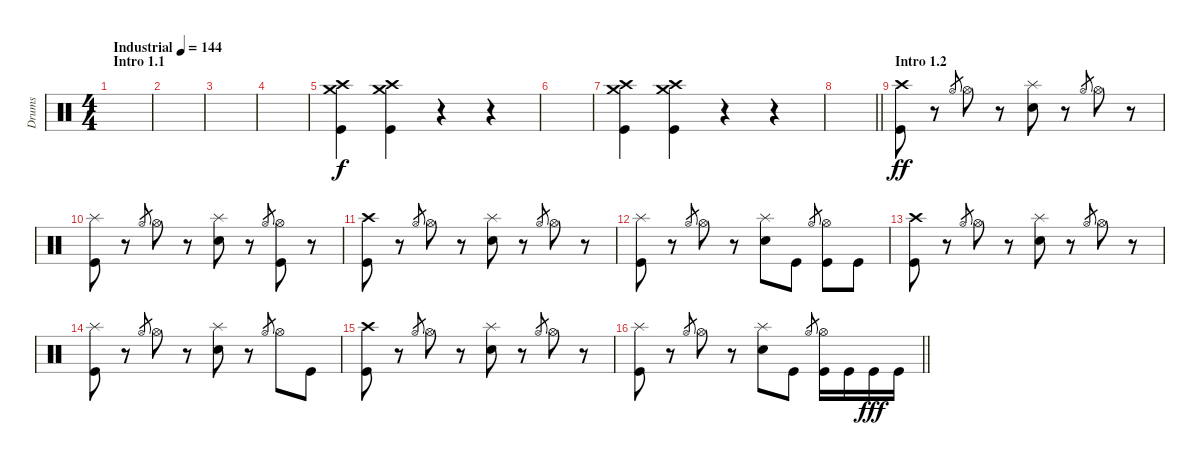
\track ("Drums" "Drums") {instrument percussion}
\staff {score}
\articulation defaults
\ts (4 4)
\section ("" "Intro 1.1")
\tempo (144 "Industrial")
\clef neutral
\ks c
|
|
|
|
("Crash high (hit)" "Crash medium (hit)" "Kick (hit)").4 ("Crash high (hit)" "Crash medium (hit)" "Kick (hit)").4 r.4{volume 0} r.4 |
|
("Crash high (hit)" "Crash medium (hit)" "Kick (hit)").4{volume 16} ("Crash high (hit)" "Crash medium (hit)" "Kick (hit)").4 r.4{volume 0} r.4 |
\barLineRight lightlight
|
\section ("" "Intro 1.2")
("Crash high (hit)" "Kick (hit)").8{dy ff volume 16} r.8 "Hi-Hat (open)".8{gr} "Hi-Hat (open)".8 r.8 ("Splash (hit)" "Snare (hit) 2").8 r.8 "Hi-Hat (open)".8{gr} "Hi-Hat (open)".8 r.8 |
("Splash (hit)" "Kick (hit)").8 r.8 "Hi-Hat (open)".8{gr} "Hi-Hat (open)".8 r.8 ("Splash (hit)" "Snare (hit) 2").8 r.8 "Hi-Hat (open)".8{gr} ("Hi-Hat (open)" "Kick (hit)").8 r.8 |
("Crash high (hit)" "Kick (hit)").8 r.8 "Hi-Hat (open)".8{gr} "Hi-Hat (open)".8 r.8 ("Splash (hit)" "Snare (hit) 2").8 r.8 "Hi-Hat (open)".8{gr} "Hi-Hat (open)".8 r.8 |
("Splash (hit)" "Kick (hit)").8 r.8 "Hi-Hat (open)".8{gr} "Hi-Hat (open)".8 r.8 ("Splash (hit)" "Snare (hit) 2").8 "Kick (hit)".8 "Hi-Hat (open)".8{gr} ("Hi-Hat (open)" "Kick (hit)").8 "Kick (hit)".8 |
("Crash high (hit)" "Kick (hit)").8 r.8 "Hi-Hat (open)".8{gr} "Hi-Hat (open)".8 r.8 ("Splash (hit)" "Snare (hit) 2").8 r.8 "Hi-Hat (open)".8{gr} "Hi-Hat (open)".8 r.8 |
("Splash (hit)" "Kick (hit)").8 r.8 "Hi-Hat (open)".8{gr} "Hi-Hat (open)".8 r.8 ("Splash (hit)" "Snare (hit) 2").8 r.8 "Hi-Hat (open)".8{gr} "Hi-Hat (open)".8 "Kick (hit)".8 |
("Crash high (hit)" "Kick (hit)").8 r.8 "Hi-Hat (open)".8{gr} "Hi-Hat (open)".8 r.8 ("Splash (hit)" "Snare (hit) 2").8 r.8 "Hi-Hat (open)".8{gr} "Hi-Hat (open)".8 r.8 |
\barLineRight lightlight
("Splash (hit)" "Kick (hit)").8 r.8 "Hi-Hat (open)".8{gr} "Hi-Hat (open)".8 r.8 ("Splash (hit)" "Snare (hit) 2").8 "Kick (hit)".8 "Hi-Hat (open)".8{gr} ("Hi-Hat (open)" "Kick (hit)").16 "Kick (hit)".16 "Kick (hit)".16{dy fff} "Kick (hit)".16
